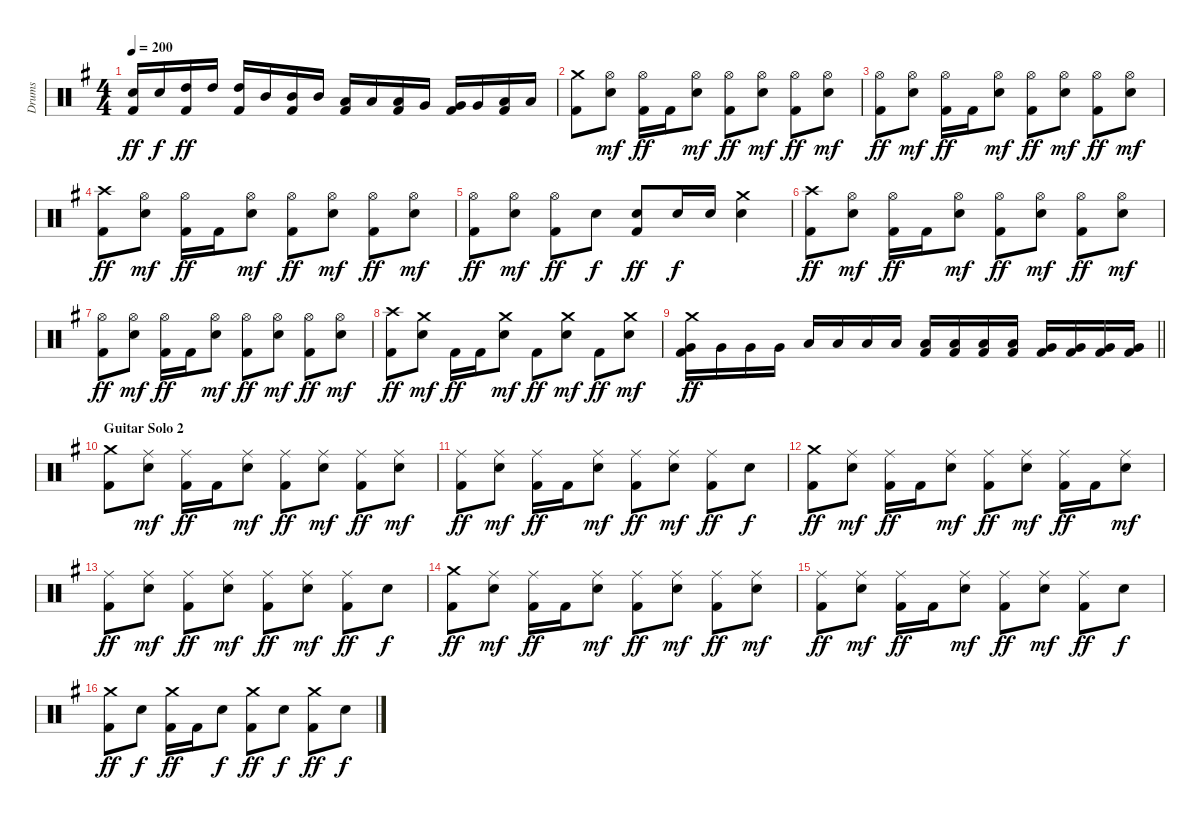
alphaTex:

\track ("Drums" "Drums") {instrument percussion}
\staff {score}
\articulation defaults
\ts (4 4)
\tempo 200
\clef neutral
\ks g
("Snare (hit) 2" "Kick (hit) 2").16{dy ff} "Snare (hit) 2".16{dy f} ("High Tom (hit)" "Kick (hit) 2").16{dy ff} "High Tom (hit)".16 ("High Tom (hit)" "Kick (hit) 2").16 "Mid Tom (hit)".16 ("Mid Tom (hit)" "Kick (hit) 2").16 "Mid Tom (hit)".16 ("Low Tom (hit)" "Kick (hit) 2").16 "Low Tom (hit)".16 ("Low Tom (hit)" "Kick (hit) 2").16 "Very Low Tom (hit)".16 ("Very Low Tom (hit)" "Kick (hit) 2").16 "Very Low Tom (hit)".16 ("Low Floor Tom (hit)" "Kick (hit) 2").16 "Low Floor Tom (hit)".16 |
("Crash medium (hit)" "Kick (hit) 2").8 ("Hi-Hat (open)" "Snare (hit) 2").8{dy mf} ("Hi-Hat (open)" "Kick (hit) 2").16{dy ff} "Kick (hit) 2".16 ("Hi-Hat (open)" "Snare (hit) 2").8{dy mf} ("Hi-Hat (open)" "Kick (hit) 2").8{dy ff} ("Hi-Hat (open)" "Snare (hit) 2").8{dy mf} ("Hi-Hat (open)" "Kick (hit) 2").8{dy ff} ("Hi-Hat (open)" "Snare (hit) 2").8{dy mf} |
("Hi-Hat (open)" "Kick (hit) 2").8{dy ff} ("Hi-Hat (open)" "Snare (hit) 2").8{dy mf} ("Hi-Hat (open)" "Kick (hit) 2").16{dy ff} "Kick (hit) 2".16 ("Hi-Hat (open)" "Snare (hit) 2").8{dy mf} ("Hi-Hat (open)" "Kick (hit) 2").8{dy ff} ("Hi-Hat (open)" "Snare (hit) 2").8{dy mf} ("Hi-Hat (open)" "Kick (hit) 2").8{dy ff} ("Hi-Hat (open)" "Snare (hit) 2").8{dy mf} |
("Crash high (hit)" "Kick (hit) 2").8{dy ff} ("Hi-Hat (open)" "Snare (hit) 2").8{dy mf} ("Hi-Hat (open)" "Kick (hit) 2").16{dy ff} "Kick (hit) 2".16 ("Hi-Hat (open)" "Snare (hit) 2").8{dy mf} ("Hi-Hat (open)" "Kick (hit) 2").8{dy ff} ("Hi-Hat (open)" "Snare (hit) 2").8{dy mf} ("Hi-Hat (open)" "Kick (hit) 2").8{dy ff} ("Hi-Hat (open)" "Snare (hit) 2").8{dy mf} |
("Hi-Hat (open)" "Kick (hit) 2").8{dy ff} ("Hi-Hat (open)" "Snare (hit) 2").8{dy mf} ("Hi-Hat (open)" "Kick (hit) 2").8{dy ff} "Snare (hit) 2".8{dy f} ("Snare (hit) 2" "Kick (hit) 2").8{dy ff} "Snare (hit) 2".16{dy f} "Snare (hit) 2".16 ("Crash medium (hit)" "Snare (hit) 2").4 |
("Crash high (hit)" "Kick (hit) 2").8{dy ff} ("Hi-Hat (open)" "Snare (hit) 2").8{dy mf} ("Hi-Hat (open)" "Kick (hit) 2").16{dy ff} "Kick (hit) 2".16 ("Hi-Hat (open)" "Snare (hit) 2").8{dy mf} ("Hi-Hat (open)" "Kick (hit) 2").8{dy ff} ("Hi-Hat (open)" "Snare (hit) 2").8{dy mf} ("Hi-Hat (open)" "Kick (hit) 2").8{dy ff} ("Hi-Hat (open)" "Snare (hit) 2").8{dy mf} |
("Hi-Hat (open)" "Kick (hit) 2").8{dy ff} ("Hi-Hat (open)" "Snare (hit) 2").8{dy mf} ("Hi-Hat (open)" "Kick (hit) 2").16{dy ff} "Kick (hit) 2".16 ("Hi-Hat (open)" "Snare (hit) 2").8{dy mf} ("Hi-Hat (open)" "Kick (hit) 2").8{dy ff} ("Hi-Hat (open)" "Snare (hit) 2").8{dy mf} ("Hi-Hat (open)" "Kick (hit) 2").8{dy ff} ("Hi-Hat (open)" "Snare (hit) 2").8{dy mf} |
("Crash high (hit)" "Kick (hit) 2").8{dy ff} ("Crash medium (hit)" "Snare (hit) 2").8{dy mf} "Kick (hit) 2".16{dy ff} "Kick (hit) 2".16 ("Crash medium (hit)" "Snare (hit) 2").8{dy mf} "Kick (hit) 2".8{dy ff} ("Crash medium (hit)" "Snare (hit) 2").8{dy mf} "Kick (hit) 2".8{dy ff} ("Crash medium (hit)" "Snare (hit) 2").8{dy mf} |
\barLineRight lightlight
("Crash medium (hit)" "Very Low Tom (hit)" "Kick (hit) 2").16{dy ff} "Very Low Tom (hit)".16 "Very Low Tom (hit)".16 "Very Low Tom (hit)".16 "Low Tom (hit)".16 "Low Tom (hit)".16 "Low Tom (hit)".16 "Low Tom (hit)".16 ("Low Floor Tom (hit)" "Kick (hit) 2").16 ("Low Floor Tom (hit)" "Kick (hit) 2").16 ("Low Floor Tom (hit)" "Kick (hit) 2").16 ("Low Floor Tom (hit)" "Kick (hit) 2").16 ("Very Low Tom (hit)" "Kick (hit) 2").16 ("Very Low Tom (hit)" "Kick (hit) 2").16 ("Very Low Tom (hit)" "Kick (hit) 2").16 ("Very Low Tom (hit)" "Kick (hit) 2").16 |
\section ("" "Guitar Solo 2")
("Crash medium (hit)" "Kick (hit) 2").8 ("Ride (middle)" "Snare (hit) 2").8{dy mf} ("Ride (middle)" "Kick (hit) 2").16{dy ff} "Kick (hit) 2".16 ("Ride (middle)" "Snare (hit) 2").8{dy mf} ("Ride (middle)" "Kick (hit) 2").8{dy ff} ("Ride (middle)" "Snare (hit) 2").8{dy mf} ("Ride (middle)" "Kick (hit) 2").8{dy ff} ("Ride (middle)" "Snare (hit) 2").8{dy mf} |
("Ride (middle)" "Kick (hit) 2").8{dy ff} ("Ride (middle)" "Snare (hit) 2").8{dy mf} ("Ride (middle)" "Kick (hit) 2").16{dy ff} "Kick (hit) 2".16 ("Ride (middle)" "Snare (hit) 2").8{dy mf} ("Ride (middle)" "Kick (hit) 2").8{dy ff} ("Ride (middle)" "Snare (hit) 2").8{dy mf} ("Ride (middle)" "Kick (hit) 2").8{dy ff} "Snare (hit) 2".8{dy f} |
("Crash medium (hit)" "Kick (hit) 2").8{dy ff} ("Ride (middle)" "Snare (hit) 2").8{dy mf} ("Ride (middle)" "Kick (hit) 2").16{dy ff} "Kick (hit) 2".16 ("Ride (middle)" "Snare (hit) 2").8{dy mf} ("Ride (middle)" "Kick (hit) 2").8{dy ff} ("Ride (middle)" "Snare (hit) 2").8{dy mf} ("Ride (middle)" "Kick (hit) 2").16{dy ff} "Kick (hit) 2".16 ("Ride (middle)" "Snare (hit) 2").8{dy mf} |
("Ride (middle)" "Kick (hit) 2").8{dy ff} ("Ride (middle)" "Snare (hit) 2").8{dy mf} ("Ride (middle)" "Kick (hit) 2").8{dy ff} ("Ride (middle)" "Snare (hit) 2").8{dy mf} ("Ride (middle)" "Kick (hit) 2").8{dy ff} ("Ride (middle)" "Snare (hit) 2").8{dy mf} ("Ride (middle)" "Kick (hit) 2").8{dy ff} "Snare (hit) 2".8{dy f} |
("Crash medium (hit)" "Kick (hit) 2").8{dy ff} ("Ride (middle)" "Snare (hit) 2").8{dy mf} ("Ride (middle)" "Kick (hit) 2").16{dy ff} "Kick (hit) 2".16 ("Ride (middle)" "Snare (hit) 2").8{dy mf} ("Ride (middle)" "Kick (hit) 2").8{dy ff} ("Ride (middle)" "Snare (hit) 2").8{dy mf} ("Ride (middle)" "Kick (hit) 2").8{dy ff} ("Ride (middle)" "Snare (hit) 2").8{dy mf} |
("Ride (middle)" "Kick (hit) 2").8{dy ff} ("Ride (middle)" "Snare (hit) 2").8{dy mf} ("Ride (middle)" "Kick (hit) 2").16{dy ff} "Kick (hit) 2".16 ("Ride (middle)" "Snare (hit) 2").8{dy mf} ("Ride (middle)" "Kick (hit) 2").8{dy ff} ("Ride (middle)" "Snare (hit) 2").8{dy mf} ("Ride (middle)" "Kick (hit) 2").8{dy ff} "Snare (hit) 2".8{dy f} |
("Crash medium (hit)" "Kick (hit) 2").8{dy ff} "Snare (hit) 2".8{dy f} ("Crash medium (hit)" "Kick (hit) 2").16{dy ff} "Kick (hit) 2".16 "Snare (hit) 2".8{dy f} ("Crash medium (hit)" "Kick (hit) 2").8{dy ff} "Snare (hit) 2".8{dy f} ("Crash medium (hit)" "Kick (hit) 2").8{dy ff} "Snare (hit) 2".8{dy f}
